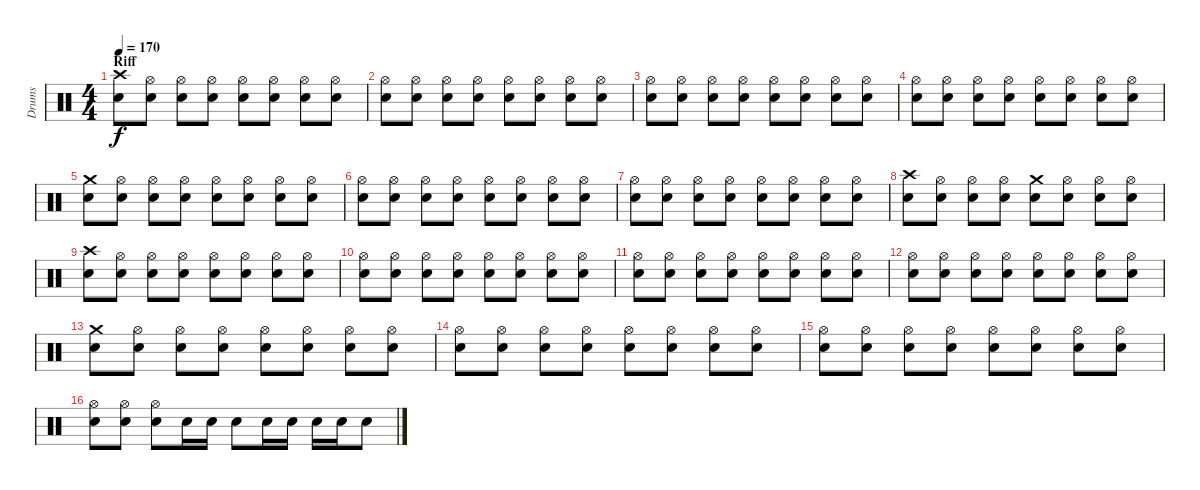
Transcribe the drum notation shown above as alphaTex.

\track ("Drums" "Drums") {instrument percussion}
\staff {score}
\articulation defaults
\ts (4 4)
\section ("" "Riff")
\tempo 170
\clef neutral
\ks c
("Crash high (hit)" "Electric Snare (hit)").8{dy f} ("Hi-Hat (open)" "Electric Snare (hit)").8 ("Hi-Hat (open)" "Electric Snare (hit)").8 ("Hi-Hat (open)" "Electric Snare (hit)").8 ("Hi-Hat (open)" "Electric Snare (hit)").8 ("Hi-Hat (open)" "Electric Snare (hit)").8 ("Hi-Hat (open)" "Electric Snare (hit)").8 ("Hi-Hat (open)" "Electric Snare (hit)").8 |
("Hi-Hat (open)" "Electric Snare (hit)").8 ("Hi-Hat (open)" "Electric Snare (hit)").8 ("Hi-Hat (open)" "Electric Snare (hit)").8 ("Hi-Hat (open)" "Electric Snare (hit)").8 ("Hi-Hat (open)" "Electric Snare (hit)").8 ("Hi-Hat (open)" "Electric Snare (hit)").8 ("Hi-Hat (open)" "Electric Snare (hit)").8 ("Hi-Hat (open)" "Electric Snare (hit)").8 |
("Hi-Hat (open)" "Electric Snare (hit)").8 ("Hi-Hat (open)" "Electric Snare (hit)").8 ("Hi-Hat (open)" "Electric Snare (hit)").8 ("Hi-Hat (open)" "Electric Snare (hit)").8 ("Hi-Hat (open)" "Electric Snare (hit)").8 ("Hi-Hat (open)" "Electric Snare (hit)").8 ("Hi-Hat (open)" "Electric Snare (hit)").8 ("Hi-Hat (open)" "Electric Snare (hit)").8 |
("Hi-Hat (open)" "Electric Snare (hit)").8 ("Hi-Hat (open)" "Electric Snare (hit)").8 ("Hi-Hat (open)" "Electric Snare (hit)").8 ("Hi-Hat (open)" "Electric Snare (hit)").8 ("Hi-Hat (open)" "Electric Snare (hit)").8 ("Hi-Hat (open)" "Electric Snare (hit)").8 ("Hi-Hat (open)" "Electric Snare (hit)").8 ("Hi-Hat (open)" "Electric Snare (hit)").8 |
("Crash medium (hit)" "Electric Snare (hit)").8 ("Hi-Hat (open)" "Electric Snare (hit)").8 ("Hi-Hat (open)" "Electric Snare (hit)").8 ("Hi-Hat (open)" "Electric Snare (hit)").8 ("Hi-Hat (open)" "Electric Snare (hit)").8 ("Hi-Hat (open)" "Electric Snare (hit)").8 ("Hi-Hat (open)" "Electric Snare (hit)").8 ("Hi-Hat (open)" "Electric Snare (hit)").8 |
("Hi-Hat (open)" "Electric Snare (hit)").8 ("Hi-Hat (open)" "Electric Snare (hit)").8 ("Hi-Hat (open)" "Electric Snare (hit)").8 ("Hi-Hat (open)" "Electric Snare (hit)").8 ("Hi-Hat (open)" "Electric Snare (hit)").8 ("Hi-Hat (open)" "Electric Snare (hit)").8 ("Hi-Hat (open)" "Electric Snare (hit)").8 ("Hi-Hat (open)" "Electric Snare (hit)").8 |
("Hi-Hat (open)" "Electric Snare (hit)").8 ("Hi-Hat (open)" "Electric Snare (hit)").8 ("Hi-Hat (open)" "Electric Snare (hit)").8 ("Hi-Hat (open)" "Electric Snare (hit)").8 ("Hi-Hat (open)" "Electric Snare (hit)").8 ("Hi-Hat (open)" "Electric Snare (hit)").8 ("Hi-Hat (open)" "Electric Snare (hit)").8 ("Hi-Hat (open)" "Electric Snare (hit)").8 |
("Crash high (hit)" "Electric Snare (hit)").8 ("Hi-Hat (open)" "Electric Snare (hit)").8 ("Hi-Hat (open)" "Electric Snare (hit)").8 ("Hi-Hat (open)" "Electric Snare (hit)").8 ("Crash medium (hit)" "Electric Snare (hit)").8 ("Hi-Hat (open)" "Electric Snare (hit)").8 ("Hi-Hat (open)" "Electric Snare (hit)").8 ("Hi-Hat (open)" "Electric Snare (hit)").8 |
("Crash high (hit)" "Electric Snare (hit)").8 ("Hi-Hat (open)" "Electric Snare (hit)").8 ("Hi-Hat (open)" "Electric Snare (hit)").8 ("Hi-Hat (open)" "Electric Snare (hit)").8 ("Hi-Hat (open)" "Electric Snare (hit)").8 ("Hi-Hat (open)" "Electric Snare (hit)").8 ("Hi-Hat (open)" "Electric Snare (hit)").8 ("Hi-Hat (open)" "Electric Snare (hit)").8 |
("Hi-Hat (open)" "Electric Snare (hit)").8 ("Hi-Hat (open)" "Electric Snare (hit)").8 ("Hi-Hat (open)" "Electric Snare (hit)").8 ("Hi-Hat (open)" "Electric Snare (hit)").8 ("Hi-Hat (open)" "Electric Snare (hit)").8 ("Hi-Hat (open)" "Electric Snare (hit)").8 ("Hi-Hat (open)" "Electric Snare (hit)").8 ("Hi-Hat (open)" "Electric Snare (hit)").8 |
("Hi-Hat (open)" "Electric Snare (hit)").8 ("Hi-Hat (open)" "Electric Snare (hit)").8 ("Hi-Hat (open)" "Electric Snare (hit)").8 ("Hi-Hat (open)" "Electric Snare (hit)").8 ("Hi-Hat (open)" "Electric Snare (hit)").8 ("Hi-Hat (open)" "Electric Snare (hit)").8 ("Hi-Hat (open)" "Electric Snare (hit)").8 ("Hi-Hat (open)" "Electric Snare (hit)").8 |
("Hi-Hat (open)" "Electric Snare (hit)").8 ("Hi-Hat (open)" "Electric Snare (hit)").8 ("Hi-Hat (open)" "Electric Snare (hit)").8 ("Hi-Hat (open)" "Electric Snare (hit)").8 ("Hi-Hat (open)" "Electric Snare (hit)").8 ("Hi-Hat (open)" "Electric Snare (hit)").8 ("Hi-Hat (open)" "Electric Snare (hit)").8 ("Hi-Hat (open)" "Electric Snare (hit)").8 |
("Crash medium (hit)" "Electric Snare (hit)").8 ("Hi-Hat (open)" "Electric Snare (hit)").8 ("Hi-Hat (open)" "Electric Snare (hit)").8 ("Hi-Hat (open)" "Electric Snare (hit)").8 ("Hi-Hat (open)" "Electric Snare (hit)").8 ("Hi-Hat (open)" "Electric Snare (hit)").8 ("Hi-Hat (open)" "Electric Snare (hit)").8 ("Hi-Hat (open)" "Electric Snare (hit)").8 |
("Hi-Hat (open)" "Electric Snare (hit)").8 ("Hi-Hat (open)" "Electric Snare (hit)").8 ("Hi-Hat (open)" "Electric Snare (hit)").8 ("Hi-Hat (open)" "Electric Snare (hit)").8 ("Hi-Hat (open)" "Electric Snare (hit)").8 ("Hi-Hat (open)" "Electric Snare (hit)").8 ("Hi-Hat (open)" "Electric Snare (hit)").8 ("Hi-Hat (open)" "Electric Snare (hit)").8 |
("Hi-Hat (open)" "Electric Snare (hit)").8 ("Hi-Hat (open)" "Electric Snare (hit)").8 ("Hi-Hat (open)" "Electric Snare (hit)").8 ("Hi-Hat (open)" "Electric Snare (hit)").8 ("Hi-Hat (open)" "Electric Snare (hit)").8 ("Hi-Hat (open)" "Electric Snare (hit)").8 ("Hi-Hat (open)" "Electric Snare (hit)").8 ("Hi-Hat (open)" "Electric Snare (hit)").8 |
("Hi-Hat (open)" "Electric Snare (hit)").8 ("Hi-Hat (open)" "Electric Snare (hit)").8 ("Hi-Hat (open)" "Electric Snare (hit)").8 "Electric Snare (hit)".16 "Electric Snare (hit)".16 "Electric Snare (hit)".8 "Electric Snare (hit)".16 "Electric Snare (hit)".16 "Electric Snare (hit)".16 "Electric Snare (hit)".16 "Electric Snare (hit)".8
